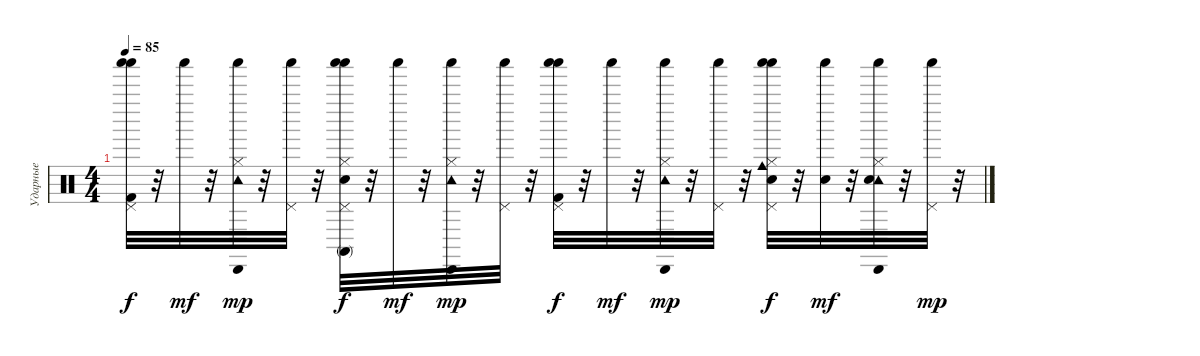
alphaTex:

\track ("Ударные" "Ударные") {instrument percussion}
\staff {score}
\articulation defaults
\ts (4 4)
\tempo 85
\clef neutral
\ks c
("Pedal Hi-Hat (hit)" "Shaker (hit)" "Shaker (hit)" "Kick (hit) 2").32{dy f volume 1} r.32 "Shaker (hit)".32{dy mf volume 1} r.32 ("Hi-Hat (closed)" "Cabasa (hit)" "Shaker (hit)" "Tambourine (hit)").32{dy mp volume 0} r.32 ("Pedal Hi-Hat (hit)" "Shaker (hit)").32{volume 0} r.32 ("Hi-Hat (closed)" "Conga high (mute)" "Pedal Hi-Hat (hit)" "Shaker (hit)" "Shaker (hit)" "Snare (hit) 2").32{dy f volume 0} r.32 "Shaker (hit)".32{dy mf volume 0} r.32 ("Hi-Hat (closed)" "Cabasa (hit)" "Shaker (hit)" "Tambourine (hit)").32{dy mp volume 0} r.32 ("Pedal Hi-Hat (hit)" "Shaker (hit)").32{volume 0} r.32 ("Pedal Hi-Hat (hit)" "Shaker (hit)" "Shaker (hit)" "Kick (hit) 2").32{dy f volume 0} r.32 "Shaker (hit)".32{dy mf volume 0} r.32 ("Hi-Hat (closed)" "Cabasa (hit)" "Shaker (hit)" "Tambourine (hit)").32{dy mp volume 0} r.32 ("Pedal Hi-Hat (hit)" "Shaker (hit)").32{volume 0} r.32 ("Cowbell medium (hit)" "Hi-Hat (closed)" "Pedal Hi-Hat (hit)" "Shaker (hit)" "Shaker (hit)" "Snare (hit) 2").32{dy f volume 0} r.32 ("Shaker (hit)" "Snare (hit) 2").32{dy mf volume 0} r.32 ("Hi-Hat (closed)" "Cabasa (hit)" "Shaker (hit)" "Tambourine (hit)" "Snare (hit) 2").32{volume 0} r.32 ("Pedal Hi-Hat (hit)" "Shaker (hit)").32{dy mp volume 0} r.32
